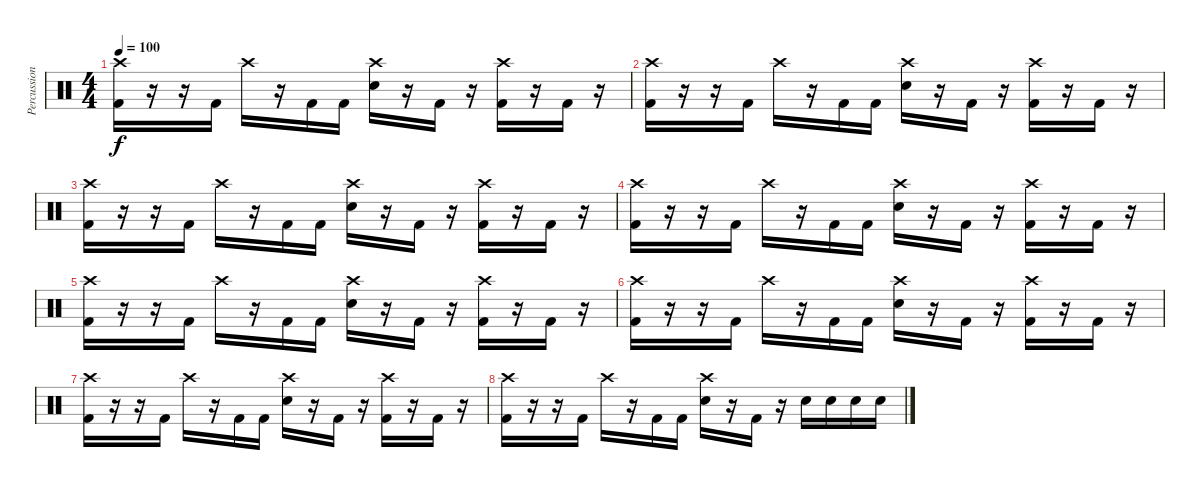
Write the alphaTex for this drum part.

\track ("Percussion" "Percussion") {instrument percussion}
\staff {score}
\articulation defaults
\ts (4 4)
\tempo 100
\clef neutral
\ks c
("Crash high (hit)" "Kick (hit) 2").16{dy f} r.16 r.16 "Kick (hit) 2".16 "Crash high (hit)".16 r.16 "Kick (hit) 2".16 "Kick (hit) 2".16 ("Crash high (hit)" "Electric Snare (hit)").16 r.16 "Kick (hit) 2".16 r.16 ("Crash high (hit)" "Kick (hit) 2").16 r.16 "Kick (hit) 2".16 r.16 |
("Crash high (hit)" "Kick (hit) 2").16 r.16 r.16 "Kick (hit) 2".16 "Crash high (hit)".16 r.16 "Kick (hit) 2".16 "Kick (hit) 2".16 ("Crash high (hit)" "Electric Snare (hit)").16 r.16 "Kick (hit) 2".16 r.16 ("Crash high (hit)" "Kick (hit) 2").16 r.16 "Kick (hit) 2".16 r.16 |
("Crash high (hit)" "Kick (hit) 2").16 r.16 r.16 "Kick (hit) 2".16 "Crash high (hit)".16 r.16 "Kick (hit) 2".16 "Kick (hit) 2".16 ("Crash high (hit)" "Electric Snare (hit)").16 r.16 "Kick (hit) 2".16 r.16 ("Crash high (hit)" "Kick (hit) 2").16 r.16 "Kick (hit) 2".16 r.16 |
("Crash high (hit)" "Kick (hit) 2").16 r.16 r.16 "Kick (hit) 2".16 "Crash high (hit)".16 r.16 "Kick (hit) 2".16 "Kick (hit) 2".16 ("Crash high (hit)" "Electric Snare (hit)").16 r.16 "Kick (hit) 2".16 r.16 ("Crash high (hit)" "Kick (hit) 2").16 r.16 "Kick (hit) 2".16 r.16 |
("Crash high (hit)" "Kick (hit) 2").16 r.16 r.16 "Kick (hit) 2".16 "Crash high (hit)".16 r.16 "Kick (hit) 2".16 "Kick (hit) 2".16 ("Crash high (hit)" "Electric Snare (hit)").16 r.16 "Kick (hit) 2".16 r.16 ("Crash high (hit)" "Kick (hit) 2").16 r.16 "Kick (hit) 2".16 r.16 |
("Crash high (hit)" "Kick (hit) 2").16 r.16 r.16 "Kick (hit) 2".16 "Crash high (hit)".16 r.16 "Kick (hit) 2".16 "Kick (hit) 2".16 ("Crash high (hit)" "Electric Snare (hit)").16 r.16 "Kick (hit) 2".16 r.16 ("Crash high (hit)" "Kick (hit) 2").16 r.16 "Kick (hit) 2".16 r.16 |
("Crash high (hit)" "Kick (hit) 2").16 r.16 r.16 "Kick (hit) 2".16 "Crash high (hit)".16 r.16 "Kick (hit) 2".16 "Kick (hit) 2".16 ("Crash high (hit)" "Electric Snare (hit)").16 r.16 "Kick (hit) 2".16 r.16 ("Crash high (hit)" "Kick (hit) 2").16 r.16 "Kick (hit) 2".16 r.16 |
("Crash high (hit)" "Kick (hit) 2").16 r.16 r.16 "Kick (hit) 2".16 "Crash high (hit)".16 r.16 "Kick (hit) 2".16 "Kick (hit) 2".16 ("Crash high (hit)" "Electric Snare (hit)").16 r.16 "Kick (hit) 2".16 r.16 "Electric Snare (hit)".16 "Electric Snare (hit)".16 "Electric Snare (hit)".16 "Electric Snare (hit)".16
